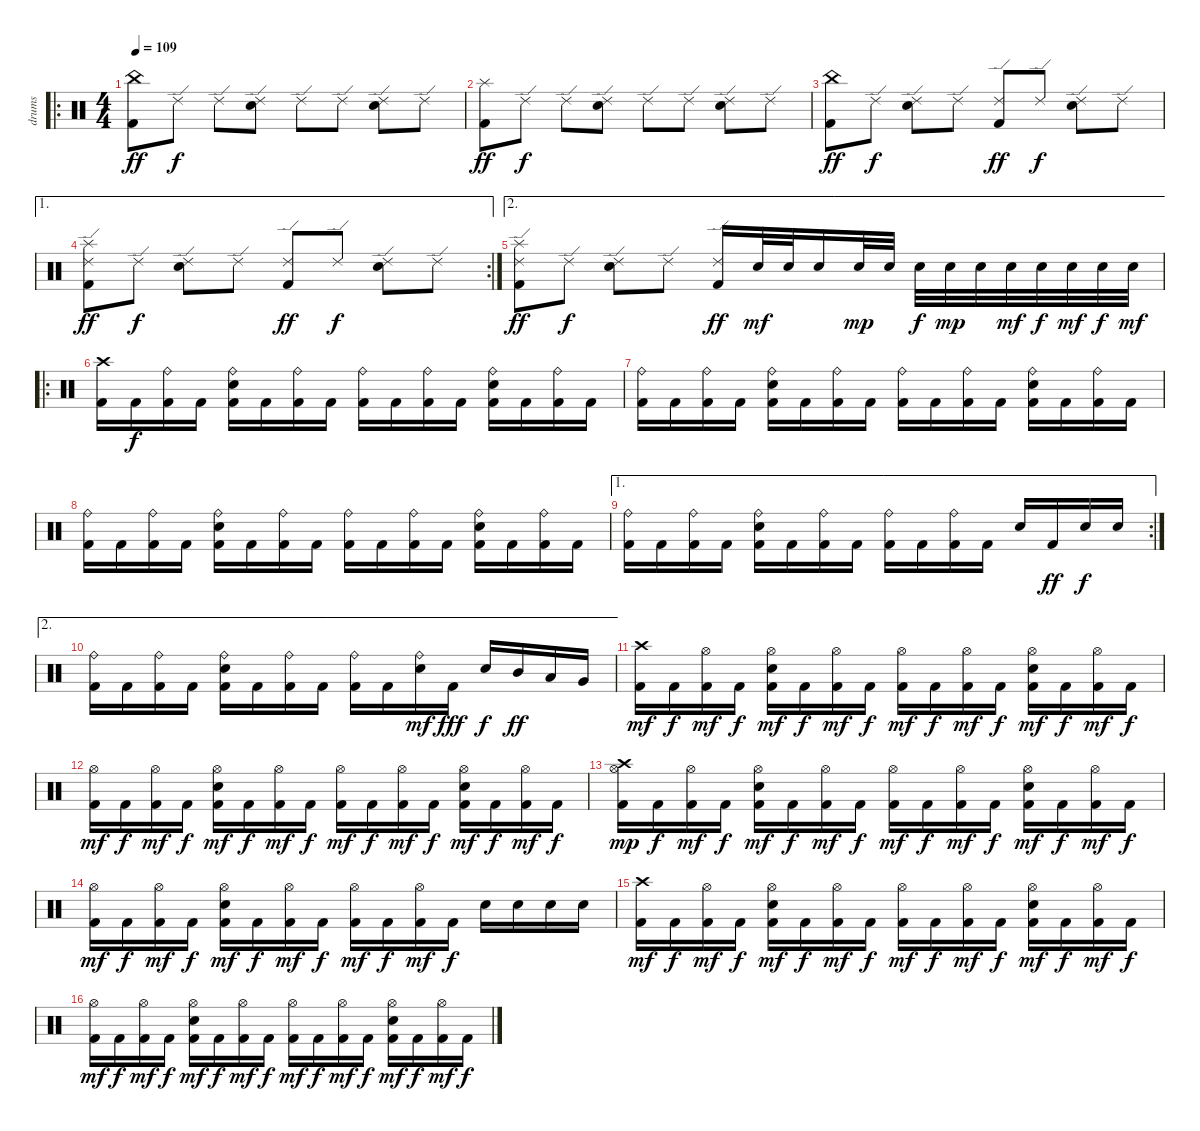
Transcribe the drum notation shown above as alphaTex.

\track ("drums" "drums") {instrument percussion}
\staff {score}
\articulation defaults
\ro
\ts (4 4)
\tempo 109
\clef neutral
\ks c
("China (hit)" "Kick (hit) 2").8{dy ff} "Ride (edge) 2".8{dy f} "Ride (edge) 2".8 ("Ride (edge) 2" "Electric Snare (hit)").8 "Ride (edge) 2".8 "Ride (edge) 2".8 ("Ride (edge) 2" "Electric Snare (hit)").8 "Ride (edge) 2".8 |
("Splash (hit)" "Kick (hit) 2").8{dy ff} "Ride (edge) 2".8{dy f} "Ride (edge) 2".8 ("Ride (edge) 2" "Electric Snare (hit)").8 "Ride (edge) 2".8 "Ride (edge) 2".8 ("Ride (edge) 2" "Electric Snare (hit)").8 "Ride (edge) 2".8 |
("China (hit)" "Kick (hit) 2").8{dy ff} "Ride (edge) 2".8{dy f} ("Ride (edge) 2" "Electric Snare (hit)").8 "Ride (edge) 2".8 ("Ride (edge) 2" "Kick (hit) 2").8{dy ff} "Ride (edge) 2".8{dy f} ("Ride (edge) 2" "Electric Snare (hit)").8 "Ride (edge) 2".8 |
\ae 1
\rc 2
("Ride (edge) 2" "Splash (hit)" "Kick (hit) 2").8{dy ff} "Ride (edge) 2".8{dy f} ("Ride (edge) 2" "Electric Snare (hit)").8 "Ride (edge) 2".8 ("Ride (edge) 2" "Kick (hit) 2").8{dy ff} "Ride (edge) 2".8{dy f} ("Ride (edge) 2" "Electric Snare (hit)").8 "Ride (edge) 2".8 |
\ae 2
("Ride (edge) 2" "Splash (hit)" "Kick (hit) 2").8{dy ff} "Ride (edge) 2".8{dy f} ("Ride (edge) 2" "Electric Snare (hit)").8 "Ride (edge) 2".8 ("Ride (edge) 2" "Kick (hit) 2").16{dy ff} "Electric Snare (hit)".32{dy mf} "Electric Snare (hit)".32 "Electric Snare (hit)".16 "Electric Snare (hit)".32{dy mp} "Electric Snare (hit)".32 "Electric Snare (hit)".32{dy f} "Electric Snare (hit)".32{dy mp} "Electric Snare (hit)".32 "Electric Snare (hit)".32{dy mf} "Electric Snare (hit)".32{dy f} "Electric Snare (hit)".32{dy mf} "Electric Snare (hit)".32{dy f} "Electric Snare (hit)".32{dy mf} |
\ro
("Crash high (hit)" "Kick (hit) 2").16 "Kick (hit) 2".16{dy f} ("Ride (bell)" "Kick (hit) 2").16 "Kick (hit) 2".16 ("Ride (bell)" "Electric Snare (hit)" "Kick (hit) 2").16 "Kick (hit) 2".16 ("Ride (bell)" "Kick (hit) 2").16 "Kick (hit) 2".16 ("Ride (bell)" "Kick (hit) 2").16 "Kick (hit) 2".16 ("Ride (bell)" "Kick (hit) 2").16 "Kick (hit) 2".16 ("Ride (bell)" "Electric Snare (hit)" "Kick (hit) 2").16 "Kick (hit) 2".16 ("Ride (bell)" "Kick (hit) 2").16 "Kick (hit) 2".16 |
("Ride (bell)" "Kick (hit) 2").16 "Kick (hit) 2".16 ("Ride (bell)" "Kick (hit) 2").16 "Kick (hit) 2".16 ("Ride (bell)" "Electric Snare (hit)" "Kick (hit) 2").16 "Kick (hit) 2".16 ("Ride (bell)" "Kick (hit) 2").16 "Kick (hit) 2".16 ("Ride (bell)" "Kick (hit) 2").16 "Kick (hit) 2".16 ("Ride (bell)" "Kick (hit) 2").16 "Kick (hit) 2".16 ("Ride (bell)" "Electric Snare (hit)" "Kick (hit) 2").16 "Kick (hit) 2".16 ("Ride (bell)" "Kick (hit) 2").16 "Kick (hit) 2".16 |
("Ride (bell)" "Kick (hit) 2").16 "Kick (hit) 2".16 ("Ride (bell)" "Kick (hit) 2").16 "Kick (hit) 2".16 ("Ride (bell)" "Electric Snare (hit)" "Kick (hit) 2").16 "Kick (hit) 2".16 ("Ride (bell)" "Kick (hit) 2").16 "Kick (hit) 2".16 ("Ride (bell)" "Kick (hit) 2").16 "Kick (hit) 2".16 ("Ride (bell)" "Kick (hit) 2").16 "Kick (hit) 2".16 ("Ride (bell)" "Electric Snare (hit)" "Kick (hit) 2").16 "Kick (hit) 2".16 ("Ride (bell)" "Kick (hit) 2").16 "Kick (hit) 2".16 |
\ae 1
\rc 2
("Ride (bell)" "Kick (hit) 2").16 "Kick (hit) 2".16 ("Ride (bell)" "Kick (hit) 2").16 "Kick (hit) 2".16 ("Ride (bell)" "Electric Snare (hit)" "Kick (hit) 2").16 "Kick (hit) 2".16 ("Ride (bell)" "Kick (hit) 2").16 "Kick (hit) 2".16 ("Ride (bell)" "Kick (hit) 2").16 "Kick (hit) 2".16 ("Ride (bell)" "Kick (hit) 2").16 "Kick (hit) 2".16 "Electric Snare (hit)".16 "Kick (hit) 2".16{dy ff} "Electric Snare (hit)".16{dy f} "Electric Snare (hit)".16 |
\ae 2
("Ride (bell)" "Kick (hit) 2").16 "Kick (hit) 2".16 ("Ride (bell)" "Kick (hit) 2").16 "Kick (hit) 2".16 ("Ride (bell)" "Electric Snare (hit)" "Kick (hit) 2").16 "Kick (hit) 2".16 ("Ride (bell)" "Kick (hit) 2").16 "Kick (hit) 2".16 ("Ride (bell)" "Kick (hit) 2").16 "Kick (hit) 2".16 ("Ride (bell)" "Electric Snare (hit)").16{dy mf} "Kick (hit) 2".16{dy fff} "Electric Snare (hit)".16{dy f} "Mid Tom (hit)".16{dy ff} "Low Tom (hit)".16 "Very Low Tom (hit)".16 |
("Crash high (hit)" "Kick (hit) 2").16{dy mf volume 14} "Kick (hit) 2".16{dy f} ("Hi-Hat (open)" "Kick (hit) 2").16{dy mf} "Kick (hit) 2".16{dy f} ("Hi-Hat (open)" "Electric Snare (hit)" "Kick (hit) 2").16{dy mf} "Kick (hit) 2".16{dy f} ("Hi-Hat (open)" "Kick (hit) 2").16{dy mf} "Kick (hit) 2".16{dy f} ("Hi-Hat (open)" "Kick (hit) 2").16{dy mf} "Kick (hit) 2".16{dy f} ("Hi-Hat (open)" "Kick (hit) 2").16{dy mf} "Kick (hit) 2".16{dy f} ("Hi-Hat (open)" "Electric Snare (hit)" "Kick (hit) 2").16{dy mf} "Kick (hit) 2".16{dy f} ("Hi-Hat (open)" "Kick (hit) 2").16{dy mf} "Kick (hit) 2".16{dy f} |
("Hi-Hat (open)" "Kick (hit) 2").16{dy mf} "Kick (hit) 2".16{dy f} ("Hi-Hat (open)" "Kick (hit) 2").16{dy mf} "Kick (hit) 2".16{dy f} ("Hi-Hat (open)" "Electric Snare (hit)" "Kick (hit) 2").16{dy mf} "Kick (hit) 2".16{dy f} ("Hi-Hat (open)" "Kick (hit) 2").16{dy mf} "Kick (hit) 2".16{dy f} ("Hi-Hat (open)" "Kick (hit) 2").16{dy mf} "Kick (hit) 2".16{dy f} ("Hi-Hat (open)" "Kick (hit) 2").16{dy mf} "Kick (hit) 2".16{dy f} ("Hi-Hat (open)" "Electric Snare (hit)" "Kick (hit) 2").16{dy mf} "Kick (hit) 2".16{dy f} ("Hi-Hat (open)" "Kick (hit) 2").16{dy mf} "Kick (hit) 2".16{dy f} |
("Crash high (hit)" "Hi-Hat (open)" "Kick (hit) 2").16{dy mp} "Kick (hit) 2".16{dy f} ("Hi-Hat (open)" "Kick (hit) 2").16{dy mf} "Kick (hit) 2".16{dy f} ("Hi-Hat (open)" "Electric Snare (hit)" "Kick (hit) 2").16{dy mf} "Kick (hit) 2".16{dy f} ("Hi-Hat (open)" "Kick (hit) 2").16{dy mf} "Kick (hit) 2".16{dy f} ("Hi-Hat (open)" "Kick (hit) 2").16{dy mf} "Kick (hit) 2".16{dy f} ("Hi-Hat (open)" "Kick (hit) 2").16{dy mf} "Kick (hit) 2".16{dy f} ("Hi-Hat (open)" "Electric Snare (hit)" "Kick (hit) 2").16{dy mf} "Kick (hit) 2".16{dy f} ("Hi-Hat (open)" "Kick (hit) 2").16{dy mf} "Kick (hit) 2".16{dy f} |
("Hi-Hat (open)" "Kick (hit) 2").16{dy mf} "Kick (hit) 2".16{dy f} ("Hi-Hat (open)" "Kick (hit) 2").16{dy mf} "Kick (hit) 2".16{dy f} ("Hi-Hat (open)" "Electric Snare (hit)" "Kick (hit) 2").16{dy mf} "Kick (hit) 2".16{dy f} ("Hi-Hat (open)" "Kick (hit) 2").16{dy mf} "Kick (hit) 2".16{dy f} ("Hi-Hat (open)" "Kick (hit) 2").16{dy mf} "Kick (hit) 2".16{dy f} ("Hi-Hat (open)" "Kick (hit) 2").16{dy mf} "Kick (hit) 2".16{dy f} "Electric Snare (hit)".16 "Electric Snare (hit)".16 "Electric Snare (hit)".16 "Electric Snare (hit)".16 |
("Crash high (hit)" "Kick (hit) 2").16{dy mf} "Kick (hit) 2".16{dy f} ("Hi-Hat (open)" "Kick (hit) 2").16{dy mf} "Kick (hit) 2".16{dy f} ("Hi-Hat (open)" "Electric Snare (hit)" "Kick (hit) 2").16{dy mf} "Kick (hit) 2".16{dy f} ("Hi-Hat (open)" "Kick (hit) 2").16{dy mf} "Kick (hit) 2".16{dy f} ("Hi-Hat (open)" "Kick (hit) 2").16{dy mf} "Kick (hit) 2".16{dy f} ("Hi-Hat (open)" "Kick (hit) 2").16{dy mf} "Kick (hit) 2".16{dy f} ("Hi-Hat (open)" "Electric Snare (hit)" "Kick (hit) 2").16{dy mf} "Kick (hit) 2".16{dy f} ("Hi-Hat (open)" "Kick (hit) 2").16{dy mf} "Kick (hit) 2".16{dy f} |
("Hi-Hat (open)" "Kick (hit) 2").16{dy mf} "Kick (hit) 2".16{dy f} ("Hi-Hat (open)" "Kick (hit) 2").16{dy mf} "Kick (hit) 2".16{dy f} ("Hi-Hat (open)" "Electric Snare (hit)" "Kick (hit) 2").16{dy mf} "Kick (hit) 2".16{dy f} ("Hi-Hat (open)" "Kick (hit) 2").16{dy mf} "Kick (hit) 2".16{dy f} ("Hi-Hat (open)" "Kick (hit) 2").16{dy mf} "Kick (hit) 2".16{dy f} ("Hi-Hat (open)" "Kick (hit) 2").16{dy mf} "Kick (hit) 2".16{dy f} ("Hi-Hat (open)" "Electric Snare (hit)" "Kick (hit) 2").16{dy mf} "Kick (hit) 2".16{dy f} ("Hi-Hat (open)" "Kick (hit) 2").16{dy mf} "Kick (hit) 2".16{dy f}
